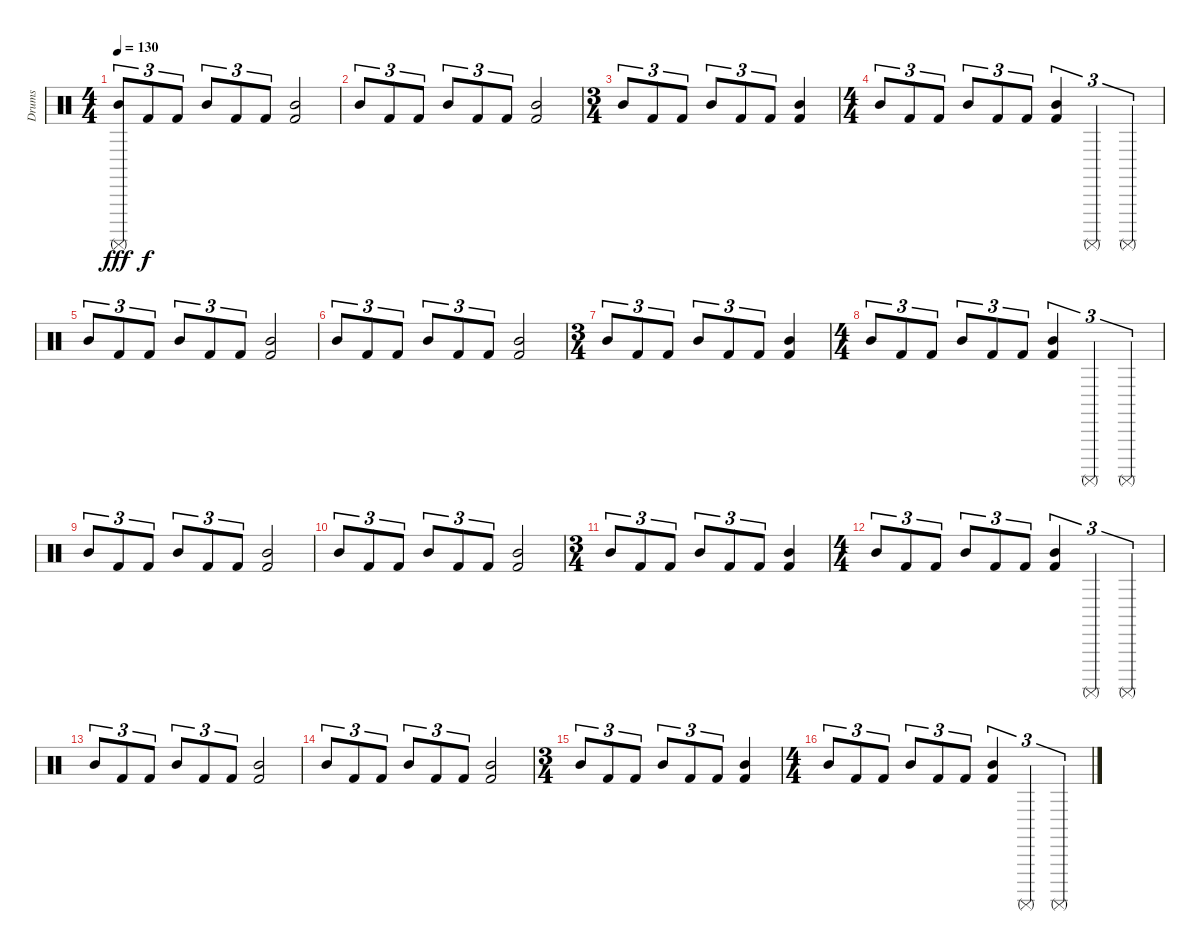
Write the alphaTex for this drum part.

\track ("Drums" "Drums") {instrument percussion}
\staff {score}
\articulation defaults
\ts (4 4)
\tempo 130
\clef neutral
\ks c
("Surdo (mute)" "Mid Tom (hit)").8{tu (3 2) dy fff} "Kick (hit) 2".8{tu (3 2) dy f} "Kick (hit) 2".8{tu (3 2)} "Mid Tom (hit)".8{tu (3 2)} "Kick (hit) 2".8{tu (3 2)} "Kick (hit) 2".8{tu (3 2)} ("Mid Tom (hit)" "Kick (hit) 2").2 |
"Mid Tom (hit)".8{tu (3 2)} "Kick (hit) 2".8{tu (3 2)} "Kick (hit) 2".8{tu (3 2)} "Mid Tom (hit)".8{tu (3 2)} "Kick (hit) 2".8{tu (3 2)} "Kick (hit) 2".8{tu (3 2)} ("Mid Tom (hit)" "Kick (hit) 2").2 |
\ts (3 4)
"Mid Tom (hit)".8{tu (3 2)} "Kick (hit) 2".8{tu (3 2)} "Kick (hit) 2".8{tu (3 2)} "Mid Tom (hit)".8{tu (3 2)} "Kick (hit) 2".8{tu (3 2)} "Kick (hit) 2".8{tu (3 2)} ("Mid Tom (hit)" "Kick (hit) 2").4 |
\ts (4 4)
"Mid Tom (hit)".8{tu (3 2)} "Kick (hit) 2".8{tu (3 2)} "Kick (hit) 2".8{tu (3 2)} "Mid Tom (hit)".8{tu (3 2)} "Kick (hit) 2".8{tu (3 2)} "Kick (hit) 2".8{tu (3 2)} ("Mid Tom (hit)" "Kick (hit) 2").4{tu (3 2)} "Surdo (mute)".4{tu (3 2)} "Surdo (mute)".4{tu (3 2)} |
"Mid Tom (hit)".8{tu (3 2)} "Kick (hit) 2".8{tu (3 2)} "Kick (hit) 2".8{tu (3 2)} "Mid Tom (hit)".8{tu (3 2)} "Kick (hit) 2".8{tu (3 2)} "Kick (hit) 2".8{tu (3 2)} ("Mid Tom (hit)" "Kick (hit) 2").2 |
"Mid Tom (hit)".8{tu (3 2)} "Kick (hit) 2".8{tu (3 2)} "Kick (hit) 2".8{tu (3 2)} "Mid Tom (hit)".8{tu (3 2)} "Kick (hit) 2".8{tu (3 2)} "Kick (hit) 2".8{tu (3 2)} ("Mid Tom (hit)" "Kick (hit) 2").2 |
\ts (3 4)
"Mid Tom (hit)".8{tu (3 2)} "Kick (hit) 2".8{tu (3 2)} "Kick (hit) 2".8{tu (3 2)} "Mid Tom (hit)".8{tu (3 2)} "Kick (hit) 2".8{tu (3 2)} "Kick (hit) 2".8{tu (3 2)} ("Mid Tom (hit)" "Kick (hit) 2").4 |
\ts (4 4)
"Mid Tom (hit)".8{tu (3 2)} "Kick (hit) 2".8{tu (3 2)} "Kick (hit) 2".8{tu (3 2)} "Mid Tom (hit)".8{tu (3 2)} "Kick (hit) 2".8{tu (3 2)} "Kick (hit) 2".8{tu (3 2)} ("Mid Tom (hit)" "Kick (hit) 2").4{tu (3 2)} "Surdo (mute)".4{tu (3 2)} "Surdo (mute)".4{tu (3 2)} |
"Mid Tom (hit)".8{tu (3 2)} "Kick (hit) 2".8{tu (3 2)} "Kick (hit) 2".8{tu (3 2)} "Mid Tom (hit)".8{tu (3 2)} "Kick (hit) 2".8{tu (3 2)} "Kick (hit) 2".8{tu (3 2)} ("Mid Tom (hit)" "Kick (hit) 2").2 |
"Mid Tom (hit)".8{tu (3 2)} "Kick (hit) 2".8{tu (3 2)} "Kick (hit) 2".8{tu (3 2)} "Mid Tom (hit)".8{tu (3 2)} "Kick (hit) 2".8{tu (3 2)} "Kick (hit) 2".8{tu (3 2)} ("Mid Tom (hit)" "Kick (hit) 2").2 |
\ts (3 4)
"Mid Tom (hit)".8{tu (3 2)} "Kick (hit) 2".8{tu (3 2)} "Kick (hit) 2".8{tu (3 2)} "Mid Tom (hit)".8{tu (3 2)} "Kick (hit) 2".8{tu (3 2)} "Kick (hit) 2".8{tu (3 2)} ("Mid Tom (hit)" "Kick (hit) 2").4 |
\ts (4 4)
"Mid Tom (hit)".8{tu (3 2)} "Kick (hit) 2".8{tu (3 2)} "Kick (hit) 2".8{tu (3 2)} "Mid Tom (hit)".8{tu (3 2)} "Kick (hit) 2".8{tu (3 2)} "Kick (hit) 2".8{tu (3 2)} ("Mid Tom (hit)" "Kick (hit) 2").4{tu (3 2)} "Surdo (mute)".4{tu (3 2)} "Surdo (mute)".4{tu (3 2)} |
"Mid Tom (hit)".8{tu (3 2)} "Kick (hit) 2".8{tu (3 2)} "Kick (hit) 2".8{tu (3 2)} "Mid Tom (hit)".8{tu (3 2)} "Kick (hit) 2".8{tu (3 2)} "Kick (hit) 2".8{tu (3 2)} ("Mid Tom (hit)" "Kick (hit) 2").2 |
"Mid Tom (hit)".8{tu (3 2)} "Kick (hit) 2".8{tu (3 2)} "Kick (hit) 2".8{tu (3 2)} "Mid Tom (hit)".8{tu (3 2)} "Kick (hit) 2".8{tu (3 2)} "Kick (hit) 2".8{tu (3 2)} ("Mid Tom (hit)" "Kick (hit) 2").2 |
\ts (3 4)
"Mid Tom (hit)".8{tu (3 2)} "Kick (hit) 2".8{tu (3 2)} "Kick (hit) 2".8{tu (3 2)} "Mid Tom (hit)".8{tu (3 2)} "Kick (hit) 2".8{tu (3 2)} "Kick (hit) 2".8{tu (3 2)} ("Mid Tom (hit)" "Kick (hit) 2").4 |
\ts (4 4)
"Mid Tom (hit)".8{tu (3 2)} "Kick (hit) 2".8{tu (3 2)} "Kick (hit) 2".8{tu (3 2)} "Mid Tom (hit)".8{tu (3 2)} "Kick (hit) 2".8{tu (3 2)} "Kick (hit) 2".8{tu (3 2)} ("Mid Tom (hit)" "Kick (hit) 2").4{tu (3 2)} "Surdo (mute)".4{tu (3 2)} "Surdo (mute)".4{tu (3 2)}
